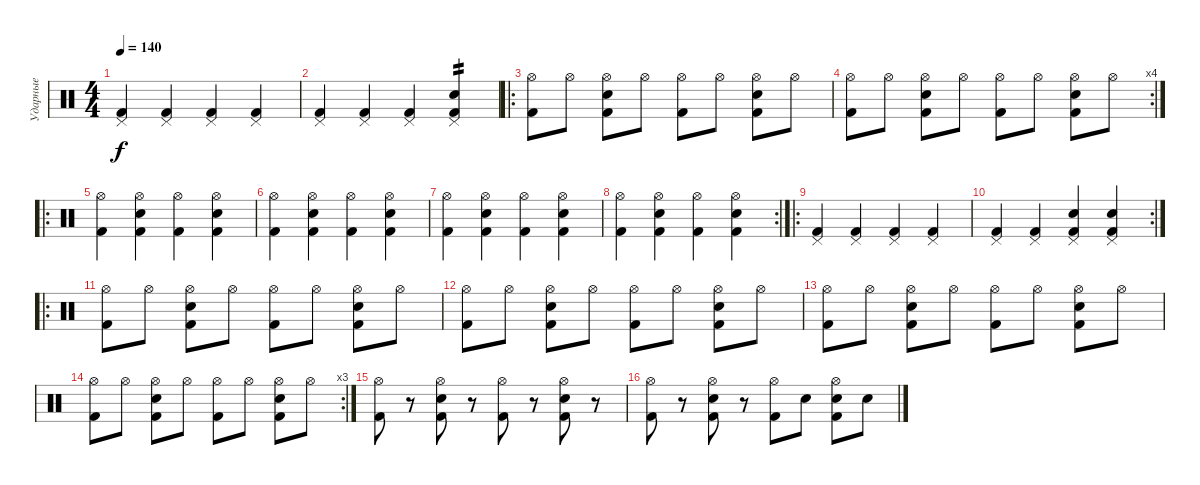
\track ("Ударные" "Ударные") {instrument percussion}
\staff {score}
\articulation defaults
\ts (4 4)
\tempo 140
\clef neutral
\ks c
("Pedal Hi-Hat (hit)" "Kick (hit) 2").4{dy f} ("Pedal Hi-Hat (hit)" "Kick (hit) 2").4 ("Pedal Hi-Hat (hit)" "Kick (hit) 2").4 ("Pedal Hi-Hat (hit)" "Kick (hit) 2").4 |
("Pedal Hi-Hat (hit)" "Kick (hit) 2").4 ("Pedal Hi-Hat (hit)" "Kick (hit) 2").4 ("Pedal Hi-Hat (hit)" "Kick (hit) 2").4 ("Pedal Hi-Hat (hit)" "Electric Snare (hit)" "Kick (hit) 2").4{tp 2} |
\ro
("Hi-Hat (open)" "Kick (hit) 2").8 "Hi-Hat (open)".8 ("Hi-Hat (open)" "Electric Snare (hit)" "Kick (hit) 2").8 "Hi-Hat (open)".8 ("Hi-Hat (open)" "Kick (hit) 2").8 "Hi-Hat (open)".8 ("Hi-Hat (open)" "Electric Snare (hit)" "Kick (hit) 2").8 "Hi-Hat (open)".8 |
\rc 4
("Hi-Hat (open)" "Kick (hit) 2").8 "Hi-Hat (open)".8 ("Hi-Hat (open)" "Electric Snare (hit)" "Kick (hit) 2").8 "Hi-Hat (open)".8 ("Hi-Hat (open)" "Kick (hit) 2").8 "Hi-Hat (open)".8 ("Hi-Hat (open)" "Electric Snare (hit)" "Kick (hit) 2").8 "Hi-Hat (open)".8 |
\ro
("Hi-Hat (open)" "Kick (hit) 2").4 ("Hi-Hat (open)" "Electric Snare (hit)" "Kick (hit) 2").4 ("Hi-Hat (open)" "Kick (hit) 2").4 ("Hi-Hat (open)" "Electric Snare (hit)" "Kick (hit) 2").4 |
("Hi-Hat (open)" "Kick (hit) 2").4 ("Hi-Hat (open)" "Electric Snare (hit)" "Kick (hit) 2").4 ("Hi-Hat (open)" "Kick (hit) 2").4 ("Hi-Hat (open)" "Electric Snare (hit)" "Kick (hit) 2").4 |
("Hi-Hat (open)" "Kick (hit) 2").4 ("Hi-Hat (open)" "Electric Snare (hit)" "Kick (hit) 2").4 ("Hi-Hat (open)" "Kick (hit) 2").4 ("Hi-Hat (open)" "Electric Snare (hit)" "Kick (hit) 2").4 |
\rc 2
("Hi-Hat (open)" "Kick (hit) 2").4 ("Hi-Hat (open)" "Electric Snare (hit)" "Kick (hit) 2").4 ("Hi-Hat (open)" "Kick (hit) 2").4 ("Hi-Hat (open)" "Electric Snare (hit)" "Kick (hit) 2").4 |
\ro
("Pedal Hi-Hat (hit)" "Kick (hit) 2").4 ("Pedal Hi-Hat (hit)" "Kick (hit) 2").4 ("Pedal Hi-Hat (hit)" "Kick (hit) 2").4 ("Pedal Hi-Hat (hit)" "Kick (hit) 2").4 |
\rc 2
("Pedal Hi-Hat (hit)" "Kick (hit) 2").4 ("Pedal Hi-Hat (hit)" "Kick (hit) 2").4 ("Pedal Hi-Hat (hit)" "Electric Snare (hit)" "Kick (hit) 2").4 ("Pedal Hi-Hat (hit)" "Electric Snare (hit)" "Kick (hit) 2").4 |
\ro
("Hi-Hat (open)" "Kick (hit) 2").8 "Hi-Hat (open)".8 ("Hi-Hat (open)" "Electric Snare (hit)" "Kick (hit) 2").8 "Hi-Hat (open)".8 ("Hi-Hat (open)" "Kick (hit) 2").8 "Hi-Hat (open)".8 ("Hi-Hat (open)" "Electric Snare (hit)" "Kick (hit) 2").8 "Hi-Hat (open)".8 |
("Hi-Hat (open)" "Kick (hit) 2").8 "Hi-Hat (open)".8 ("Hi-Hat (open)" "Electric Snare (hit)" "Kick (hit) 2").8 "Hi-Hat (open)".8 ("Hi-Hat (open)" "Kick (hit) 2").8 "Hi-Hat (open)".8 ("Hi-Hat (open)" "Electric Snare (hit)" "Kick (hit) 2").8 "Hi-Hat (open)".8 |
("Hi-Hat (open)" "Kick (hit) 2").8 "Hi-Hat (open)".8 ("Hi-Hat (open)" "Electric Snare (hit)" "Kick (hit) 2").8 "Hi-Hat (open)".8 ("Hi-Hat (open)" "Kick (hit) 2").8 "Hi-Hat (open)".8 ("Hi-Hat (open)" "Electric Snare (hit)" "Kick (hit) 2").8 "Hi-Hat (open)".8 |
\rc 3
("Hi-Hat (open)" "Kick (hit) 2").8 "Hi-Hat (open)".8 ("Hi-Hat (open)" "Electric Snare (hit)" "Kick (hit) 2").8 "Hi-Hat (open)".8 ("Hi-Hat (open)" "Kick (hit) 2").8 "Hi-Hat (open)".8 ("Hi-Hat (open)" "Electric Snare (hit)" "Kick (hit) 2").8 "Hi-Hat (open)".8 |
("Hi-Hat (open)" "Kick (hit) 2").8 r.8 ("Hi-Hat (open)" "Electric Snare (hit)" "Kick (hit) 2").8 r.8 ("Hi-Hat (open)" "Kick (hit) 2").8 r.8 ("Hi-Hat (open)" "Electric Snare (hit)" "Kick (hit) 2").8 r.8 |
("Hi-Hat (open)" "Kick (hit) 2").8 r.8 ("Hi-Hat (open)" "Electric Snare (hit)" "Kick (hit) 2").8 r.8 ("Hi-Hat (open)" "Kick (hit) 2").8 "Electric Snare (hit)".8 ("Hi-Hat (open)" "Electric Snare (hit)" "Kick (hit) 2").8 "Electric Snare (hit)".8
